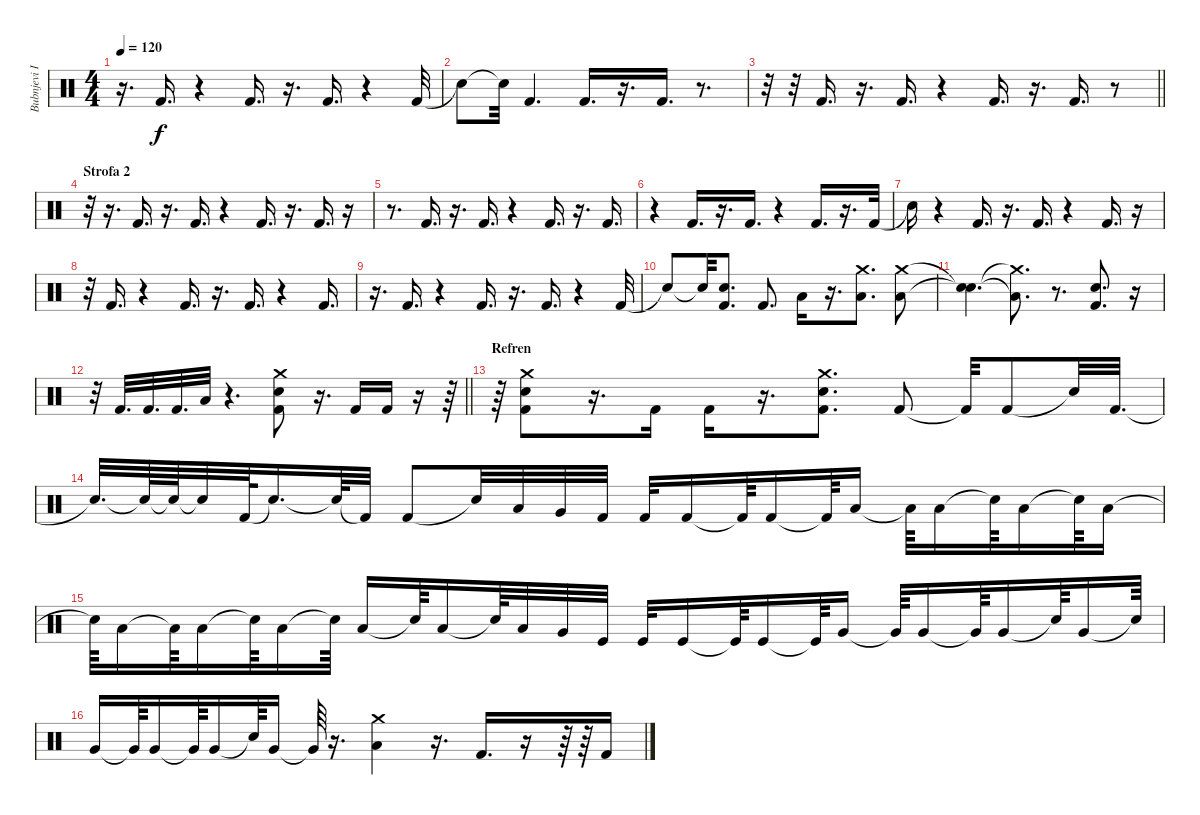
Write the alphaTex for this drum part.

\track ("Bubnjevi Ipe Ivandic" "Bubnjevi I") {instrument percussion}
\staff {score}
\articulation defaults
\ts (4 4)
\tempo 120
\clef neutral
\ks c
r.16{d dy f} "Kick (hit) 2".16{d} r.4 "Kick (hit) 2".16{d} r.16{d} "Kick (hit) 2".16{d} r.4 "Kick (hit) 2".32 |
"Snare (hit)"{t}.8 "Snare (hit)"{t}.32 "Kick (hit) 2".4{d} "Kick (hit) 2".16{d} r.16{d} "Kick (hit) 2".16{d} r.8{d} |
\barLineRight lightlight
r.32 r.32 "Kick (hit) 2".16{d} r.16{d} "Kick (hit) 2".16{d} r.4 "Kick (hit) 2".16{d} r.16{d} "Kick (hit) 2".16{d} r.8 |
\section ("" "Strofa 2")
r.32 r.16{d} "Kick (hit) 2".16{d} r.16{d} "Kick (hit) 2".16{d} r.4 "Kick (hit) 2".16{d} r.16{d} "Kick (hit) 2".16{d} r.16 |
r.8{d} "Kick (hit) 2".16{d} r.16{d} "Kick (hit) 2".16{d} r.4 "Kick (hit) 2".16{d} r.16{d} "Kick (hit) 2".16{d} |
r.4 "Kick (hit) 2".16{d} r.16{d} "Kick (hit) 2".16{d} r.4 "Kick (hit) 2".16{d} r.16{d} "Kick (hit) 2".32 |
"Snare (hit)"{t}.16 r.4 "Kick (hit) 2".16{d} r.16{d} "Kick (hit) 2".16{d} r.4 "Kick (hit) 2".16{d} r.16 |
r.32 "Kick (hit) 2".16{d} r.4 "Kick (hit) 2".16{d} r.16{d} "Kick (hit) 2".16{d} r.4 "Kick (hit) 2".16{d} |
r.16{d} "Kick (hit) 2".16{d} r.4 "Kick (hit) 2".16{d} r.16{d} "Kick (hit) 2".16{d} r.4 "Kick (hit) 2".32 |
"Snare (hit)"{t}.8 "Snare (hit)"{t}.32 ("Kick (hit) 2" "Snare (hit) 2").8{d} "Kick (hit) 2".8{d} "Low Tom (hit)".16 r.16{d} ("Low Tom (hit)" "Crash medium (hit)").8{d} ("Low Tom (hit)" "Crash medium (hit)").8 |
("Snare (hit)"{t} "Snare (hit)"{t}).4{d} ("Low Tom (hit)"{t} "Crash medium (hit)"{t}).8{d} r.8{d} ("Kick (hit) 2" "Snare (hit) 2").8{d} r.16 |
\barLineRight lightlight
r.32 "Kick (hit) 2".32{d} "Kick (hit) 2".32{d} "Kick (hit) 2".32{d} "Low Tom (hit)".32 r.4{d} ("Kick (hit) 2" "Snare (hit) 2" "Crash medium (hit)").8 r.16{d} "Kick (hit) 2".16 "Kick (hit) 2".16 r.16 r.64 |
\section ("" "Refren")
r.64 ("Kick (hit) 2" "Snare (hit) 2" "Crash medium (hit)").8 r.16{d} "Kick (hit) 2".16 "Kick (hit) 2".16 r.16{d} ("Kick (hit) 2" "Snare (hit) 2" "Crash medium (hit)").8{d} "Kick (hit) 2".8 "Kick (hit) 2"{t}.32 "Kick (hit) 2".8 "Snare (hit)"{t}.32 "Kick (hit) 2".32{d} |
"Snare (hit)"{t}.32{d} "Snare (hit)"{t}.64 "Snare (hit)"{t}.64 "Snare (hit)"{t}.32 "Kick (hit) 2".64 "Snare (hit)"{t}.16{d} "Snare (hit)"{t}.64 "Kick (hit) 2"{t}.32 "Kick (hit) 2".8 "Snare (hit)"{t}.32 "Low Tom (hit)".32 "Very Low Tom (hit)".32 "Kick (hit) 2".32 "Kick (hit) 2".32 "Kick (hit) 2".16 "Kick (hit) 2"{t}.64 "Kick (hit) 2".16 "Kick (hit) 2"{t}.64 "Low Tom (hit)".16 "Low Tom (hit)"{t}.64 "Low Tom (hit)".16 "Snare (hit)"{t}.64 "Low Tom (hit)".16 "Snare (hit)"{t}.64 "Low Tom (hit)".16 |
"Snare (hit)"{t}.64 "Low Tom (hit)".16 "Low Tom (hit)"{t}.64 "Low Tom (hit)".16 "Snare (hit)"{t}.64 "Low Tom (hit)".16 "Snare (hit)"{t}.64 "Low Tom (hit)".16 "Snare (hit)"{t}.64 "Low Tom (hit)".16 "Snare (hit)"{t}.64 "Low Floor Tom (hit)".32 "Very Low Tom (hit)".32 "Kick (hit)".32 "Kick (hit)".32 "Kick (hit)".16 "Kick (hit)"{t}.64 "Kick (hit)".16 "Kick (hit)"{t}.64 "Very Low Tom (hit)".16 "Very Low Tom (hit)"{t}.64 "Very Low Tom (hit)".16 "Very Low Tom (hit)"{t}.64 "Very Low Tom (hit)".16 "Snare (hit)"{t}.64 "Very Low Tom (hit)".16 "Snare (hit)"{t}.64 |
"Very Low Tom (hit)".16 "Very Low Tom (hit)"{t}.64 "Very Low Tom (hit)".16 "Very Low Tom (hit)"{t}.64 "Very Low Tom (hit)".16 "Snare (hit)"{t}.64 "Very Low Tom (hit)".16 "Very Low Tom (hit)"{t}.64 r.16{d} ("Low Tom (hit)" "Crash medium (hit)").4 r.16{d} "Kick (hit) 2".16{d} r.16 r.64 r.64 "Kick (hit) 2".16
